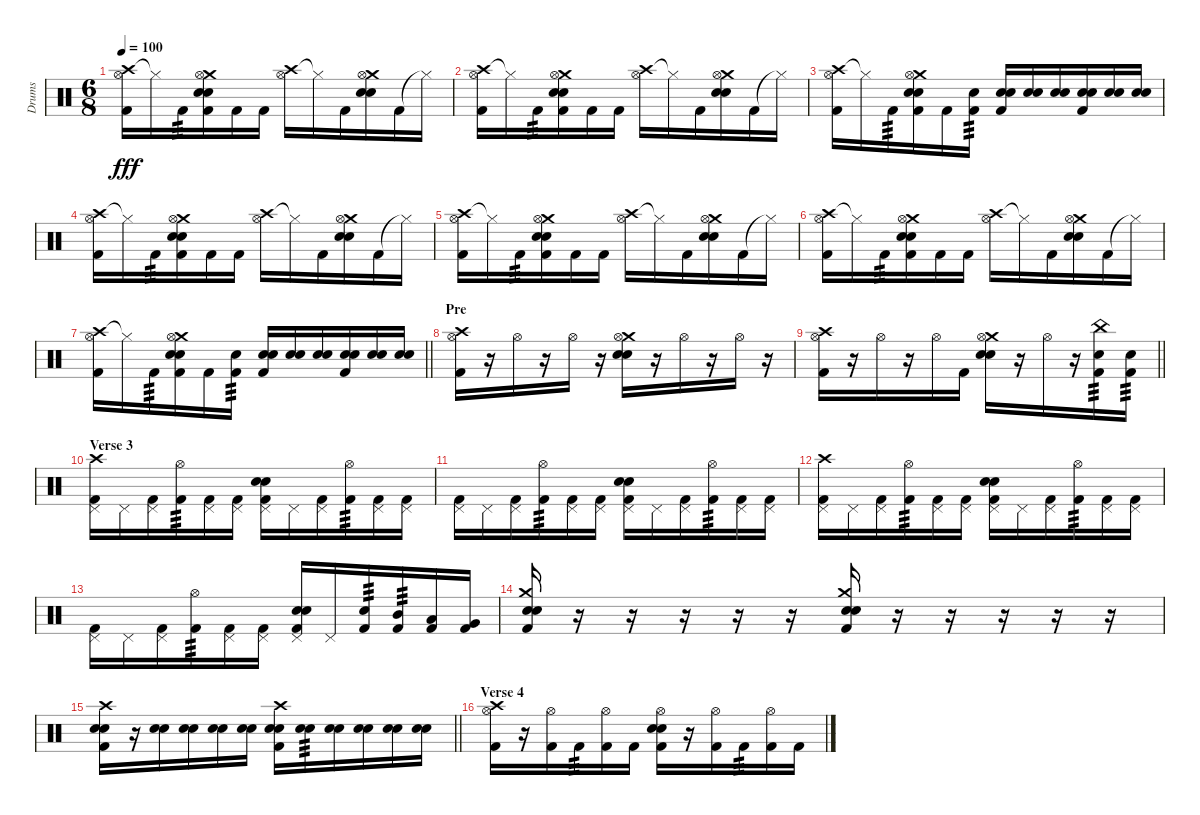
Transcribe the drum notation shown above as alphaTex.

\track ("Drums" "Drums") {instrument percussion}
\staff {score}
\articulation defaults
\ts (6 8)
\tempo 100
\clef neutral
\ks c
("Crash high (hit)" "Hi-Hat (open)" "Kick (hit) 2").16{dy fff} "Hi-Hat (closed)"{t}.16 "Kick (hit) 2".16{tp 3} ("Crash medium (hit)" "Hi-Hat (open)" "Snare (hit) 2" "Electric Snare (hit)" "Kick (hit) 2").16 "Kick (hit) 2".16 "Kick (hit) 2".16 ("Crash high (hit)" "Hi-Hat (open)").16 "Hi-Hat (closed)"{t}.16 "Kick (hit) 2".16 ("Crash medium (hit)" "Hi-Hat (open)" "Snare (hit) 2" "Electric Snare (hit)").16 "Kick (hit) 2".16 "Hi-Hat (closed)"{t}.16 |
("Crash high (hit)" "Hi-Hat (open)" "Kick (hit) 2").16 "Hi-Hat (closed)"{t}.16 "Kick (hit) 2".16{tp 3} ("Crash medium (hit)" "Hi-Hat (open)" "Snare (hit) 2" "Electric Snare (hit)" "Kick (hit) 2").16 "Kick (hit) 2".16 "Kick (hit) 2".16 ("Crash high (hit)" "Hi-Hat (open)").16 "Hi-Hat (closed)"{t}.16 "Kick (hit) 2".16 ("Crash medium (hit)" "Hi-Hat (open)" "Snare (hit) 2" "Electric Snare (hit)").16 "Kick (hit) 2".16 "Hi-Hat (closed)"{t}.16 |
("Crash high (hit)" "Hi-Hat (open)" "Kick (hit) 2").16 "Hi-Hat (closed)"{t}.16 "Kick (hit) 2".16{tp 3} ("Crash medium (hit)" "Hi-Hat (open)" "Snare (hit) 2" "Electric Snare (hit)" "Kick (hit) 2").16 "Kick (hit) 2".16 ("Electric Snare (hit)" "Kick (hit) 2").16{tp 3} ("Snare (hit) 2" "Electric Snare (hit)" "Kick (hit) 2").16 ("Snare (hit) 2" "Electric Snare (hit)").16 ("Snare (hit) 2" "Electric Snare (hit)").16 ("Snare (hit) 2" "Electric Snare (hit)" "Kick (hit) 2").16 ("Snare (hit) 2" "Electric Snare (hit)").16 ("Snare (hit) 2" "Electric Snare (hit)").16 |
("Crash high (hit)" "Hi-Hat (open)" "Kick (hit) 2").16 "Hi-Hat (closed)"{t}.16 "Kick (hit) 2".16{tp 3} ("Crash medium (hit)" "Hi-Hat (open)" "Snare (hit) 2" "Electric Snare (hit)" "Kick (hit) 2").16 "Kick (hit) 2".16 "Kick (hit) 2".16 ("Crash high (hit)" "Hi-Hat (open)").16 "Hi-Hat (closed)"{t}.16 "Kick (hit) 2".16 ("Crash medium (hit)" "Hi-Hat (open)" "Snare (hit) 2" "Electric Snare (hit)").16 "Kick (hit) 2".16 "Hi-Hat (closed)"{t}.16 |
("Crash high (hit)" "Hi-Hat (open)" "Kick (hit) 2").16 "Hi-Hat (closed)"{t}.16 "Kick (hit) 2".16{tp 3} ("Crash medium (hit)" "Hi-Hat (open)" "Snare (hit) 2" "Electric Snare (hit)" "Kick (hit) 2").16 "Kick (hit) 2".16 "Kick (hit) 2".16 ("Crash high (hit)" "Hi-Hat (open)").16 "Hi-Hat (closed)"{t}.16 "Kick (hit) 2".16 ("Crash medium (hit)" "Hi-Hat (open)" "Snare (hit) 2" "Electric Snare (hit)").16 "Kick (hit) 2".16 "Hi-Hat (closed)"{t}.16 |
("Crash high (hit)" "Hi-Hat (open)" "Kick (hit) 2").16 "Hi-Hat (closed)"{t}.16 "Kick (hit) 2".16{tp 3} ("Crash medium (hit)" "Hi-Hat (open)" "Snare (hit) 2" "Electric Snare (hit)" "Kick (hit) 2").16 "Kick (hit) 2".16 "Kick (hit) 2".16 ("Crash high (hit)" "Hi-Hat (open)").16 "Hi-Hat (closed)"{t}.16 "Kick (hit) 2".16 ("Crash medium (hit)" "Hi-Hat (open)" "Snare (hit) 2" "Electric Snare (hit)").16 "Kick (hit) 2".16 "Hi-Hat (closed)"{t}.16 |
\barLineRight lightlight
("Crash high (hit)" "Hi-Hat (open)" "Kick (hit) 2").16 "Hi-Hat (closed)"{t}.16 "Kick (hit) 2".16{tp 3} ("Crash medium (hit)" "Hi-Hat (open)" "Snare (hit) 2" "Electric Snare (hit)" "Kick (hit) 2").16 "Kick (hit) 2".16 ("Electric Snare (hit)" "Kick (hit) 2").16{tp 3} ("Snare (hit) 2" "Electric Snare (hit)" "Kick (hit) 2").16 ("Snare (hit) 2" "Electric Snare (hit)").16 ("Snare (hit) 2" "Electric Snare (hit)").16 ("Snare (hit) 2" "Electric Snare (hit)" "Kick (hit) 2").16 ("Snare (hit) 2" "Electric Snare (hit)").16 ("Snare (hit) 2" "Electric Snare (hit)").16 |
\section ("" "Pre")
("Crash high (hit)" "Hi-Hat (open)" "Kick (hit) 2").16 r.16 "Hi-Hat (open)".16 r.16 "Hi-Hat (open)".16 r.16 ("Crash medium (hit)" "Hi-Hat (open)" "Snare (hit) 2" "Electric Snare (hit)").16 r.16 "Hi-Hat (open)".16 r.16 "Hi-Hat (open)".16 r.16 |
\barLineRight lightlight
("Crash high (hit)" "Hi-Hat (open)" "Kick (hit) 2").16 r.16 "Hi-Hat (open)".16 r.16 "Hi-Hat (open)".16 "Kick (hit) 2".16 ("Crash medium (hit)" "Hi-Hat (open)" "Snare (hit) 2" "Electric Snare (hit)").16 r.16 "Hi-Hat (open)".16 r.16 ("China (hit)" "Electric Snare (hit)" "Kick (hit) 2").16{tp 3} ("Electric Snare (hit)" "Kick (hit) 2").16{tp 3} |
\section ("" "Verse 3")
("Crash high (hit)" "Pedal Hi-Hat (hit)" "Kick (hit) 2").16 "Pedal Hi-Hat (hit)".16 ("Pedal Hi-Hat (hit)" "Kick (hit) 2").16 ("Hi-Hat (open)" "Kick (hit) 2").16{tp 3} ("Pedal Hi-Hat (hit)" "Kick (hit) 2").16 ("Pedal Hi-Hat (hit)" "Kick (hit) 2").16 ("Pedal Hi-Hat (hit)" "Snare (hit) 2" "Electric Snare (hit)" "Kick (hit) 2").16 "Pedal Hi-Hat (hit)".16 ("Pedal Hi-Hat (hit)" "Kick (hit) 2").16 ("Hi-Hat (open)" "Kick (hit) 2").16{tp 3} ("Pedal Hi-Hat (hit)" "Kick (hit) 2").16 ("Pedal Hi-Hat (hit)" "Kick (hit) 2").16 |
("Pedal Hi-Hat (hit)" "Kick (hit) 2").16 "Pedal Hi-Hat (hit)".16 ("Pedal Hi-Hat (hit)" "Kick (hit) 2").16 ("Hi-Hat (open)" "Kick (hit) 2").16{tp 3} ("Pedal Hi-Hat (hit)" "Kick (hit) 2").16 ("Pedal Hi-Hat (hit)" "Kick (hit) 2").16 ("Pedal Hi-Hat (hit)" "Snare (hit) 2" "Electric Snare (hit)" "Kick (hit) 2").16 "Pedal Hi-Hat (hit)".16 ("Pedal Hi-Hat (hit)" "Kick (hit) 2").16 ("Hi-Hat (open)" "Kick (hit) 2").16{tp 3} ("Pedal Hi-Hat (hit)" "Kick (hit) 2").16 ("Pedal Hi-Hat (hit)" "Kick (hit) 2").16 |
("Crash high (hit)" "Pedal Hi-Hat (hit)" "Kick (hit) 2").16 "Pedal Hi-Hat (hit)".16 ("Pedal Hi-Hat (hit)" "Kick (hit) 2").16 ("Hi-Hat (open)" "Kick (hit) 2").16{tp 3} ("Pedal Hi-Hat (hit)" "Kick (hit) 2").16 ("Pedal Hi-Hat (hit)" "Kick (hit) 2").16 ("Pedal Hi-Hat (hit)" "Snare (hit) 2" "Electric Snare (hit)" "Kick (hit) 2").16 "Pedal Hi-Hat (hit)".16 ("Pedal Hi-Hat (hit)" "Kick (hit) 2").16 ("Hi-Hat (open)" "Kick (hit) 2").16{tp 3} ("Pedal Hi-Hat (hit)" "Kick (hit) 2").16 ("Pedal Hi-Hat (hit)" "Kick (hit) 2").16 |
("Pedal Hi-Hat (hit)" "Kick (hit) 2").16 "Pedal Hi-Hat (hit)".16 ("Pedal Hi-Hat (hit)" "Kick (hit) 2").16 ("Hi-Hat (open)" "Kick (hit) 2").16{tp 3} ("Pedal Hi-Hat (hit)" "Kick (hit) 2").16 ("Pedal Hi-Hat (hit)" "Kick (hit) 2").16 ("Pedal Hi-Hat (hit)" "Snare (hit) 2" "Electric Snare (hit)" "Kick (hit) 2").16 "Pedal Hi-Hat (hit)".16 ("Electric Snare (hit)" "Kick (hit) 2").16{tp 3} ("Mid Tom (hit)" "Kick (hit) 2").16{tp 3} ("Low Tom (hit)" "Kick (hit) 2").16 ("Very Low Tom (hit)" "Kick (hit) 2").16 |
("Crash medium (hit)" "Snare (hit) 2" "Electric Snare (hit)" "Kick (hit) 2").16 r.16 r.16 r.16 r.16 r.16 ("Crash medium (hit)" "Snare (hit) 2" "Electric Snare (hit)" "Kick (hit) 2").16 r.16 r.16 r.16 r.16 r.16 |
\barLineRight lightlight
("Crash high (hit)" "Snare (hit) 2" "Electric Snare (hit)" "Kick (hit) 2").16 r.16 ("Snare (hit) 2" "Electric Snare (hit)").16 ("Snare (hit) 2" "Electric Snare (hit)").16 ("Snare (hit) 2" "Electric Snare (hit)").16 ("Snare (hit) 2" "Electric Snare (hit)").16 ("Crash high (hit)" "Snare (hit) 2" "Electric Snare (hit)" "Kick (hit) 2").16 ("Snare (hit) 2" "Electric Snare (hit)").16{tp 3} ("Snare (hit) 2" "Electric Snare (hit)").16 ("Snare (hit) 2" "Electric Snare (hit)").16 ("Snare (hit) 2" "Electric Snare (hit)").16 ("Snare (hit) 2" "Electric Snare (hit)").16 |
\section ("" "Verse 4")
("Crash high (hit)" "Hi-Hat (open)" "Kick (hit) 2").16 r.16 ("Hi-Hat (open)" "Kick (hit) 2").16 "Kick (hit) 2".16{tp 3} ("Hi-Hat (open)" "Kick (hit) 2").16 "Kick (hit) 2".16 ("Hi-Hat (open)" "Snare (hit) 2" "Electric Snare (hit)" "Kick (hit) 2").16 r.16 ("Hi-Hat (open)" "Kick (hit) 2").16 "Kick (hit) 2".16{tp 3} ("Hi-Hat (open)" "Kick (hit) 2").16 "Kick (hit) 2".16
